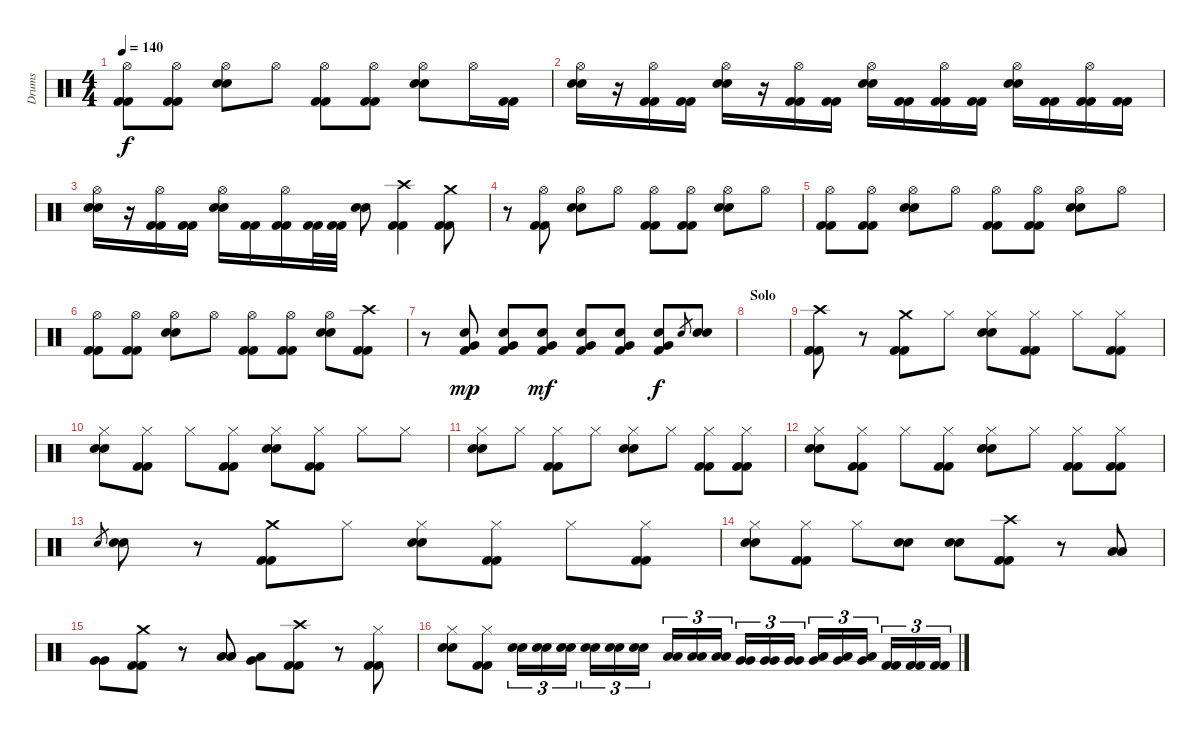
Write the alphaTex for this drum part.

\track ("Drums" "Drums") {instrument percussion}
\staff {score}
\articulation defaults
\ts (4 4)
\tempo 140
\clef neutral
\ks c
("Hi-Hat (open)" "Kick (hit) 2" "Kick (hit) 2").8{dy f} ("Hi-Hat (open)" "Kick (hit) 2" "Kick (hit) 2").8 ("Hi-Hat (open)" "Snare (hit) 2" "Snare (hit) 2").8 "Hi-Hat (open)".8 ("Hi-Hat (open)" "Kick (hit) 2" "Kick (hit) 2").8 ("Hi-Hat (open)" "Kick (hit) 2" "Kick (hit) 2").8 ("Hi-Hat (open)" "Snare (hit) 2" "Snare (hit) 2").8 "Hi-Hat (open)".16 ("Kick (hit) 2" "Kick (hit) 2").16 |
("Hi-Hat (open)" "Snare (hit) 2" "Snare (hit) 2").16 r.16 ("Hi-Hat (open)" "Kick (hit) 2" "Kick (hit) 2").16 ("Kick (hit) 2" "Kick (hit) 2").16 ("Hi-Hat (open)" "Snare (hit) 2" "Snare (hit) 2").16 r.16 ("Hi-Hat (open)" "Kick (hit) 2" "Kick (hit) 2").16 ("Kick (hit) 2" "Kick (hit) 2").16 ("Hi-Hat (open)" "Snare (hit) 2" "Snare (hit) 2").16 ("Kick (hit) 2" "Kick (hit) 2").16 ("Hi-Hat (open)" "Kick (hit) 2" "Kick (hit) 2").16 ("Kick (hit) 2" "Kick (hit) 2").16 ("Hi-Hat (open)" "Snare (hit) 2" "Snare (hit) 2").16 ("Kick (hit) 2" "Kick (hit) 2").16 ("Hi-Hat (open)" "Kick (hit) 2" "Kick (hit) 2").16 ("Kick (hit) 2" "Kick (hit) 2").16 |
("Hi-Hat (open)" "Snare (hit) 2" "Snare (hit) 2").16 r.16 ("Hi-Hat (open)" "Kick (hit) 2" "Kick (hit) 2").16 ("Kick (hit) 2" "Kick (hit) 2").16 ("Hi-Hat (open)" "Snare (hit) 2" "Snare (hit) 2").16 ("Kick (hit) 2" "Kick (hit) 2").16 ("Hi-Hat (open)" "Kick (hit) 2" "Kick (hit) 2").16 ("Kick (hit) 2" "Kick (hit) 2").32 ("Kick (hit) 2" "Kick (hit) 2").32 ("Snare (hit) 2" "Snare (hit) 2").8 ("Crash high (hit)" "Kick (hit) 2" "Kick (hit) 2").4 ("Crash medium (hit)" "Kick (hit) 2" "Kick (hit) 2").8 |
r.8 ("Hi-Hat (open)" "Kick (hit) 2" "Kick (hit) 2").8 ("Hi-Hat (open)" "Snare (hit) 2" "Snare (hit) 2").8 "Hi-Hat (open)".8 ("Hi-Hat (open)" "Kick (hit) 2" "Kick (hit) 2").8 ("Hi-Hat (open)" "Kick (hit) 2" "Kick (hit) 2").8 ("Hi-Hat (open)" "Snare (hit) 2" "Snare (hit) 2").8 "Hi-Hat (open)".8 |
("Hi-Hat (open)" "Kick (hit) 2" "Kick (hit) 2").8 ("Hi-Hat (open)" "Kick (hit) 2" "Kick (hit) 2").8 ("Hi-Hat (open)" "Snare (hit) 2" "Snare (hit) 2").8 "Hi-Hat (open)".8 ("Hi-Hat (open)" "Kick (hit) 2" "Kick (hit) 2").8 ("Hi-Hat (open)" "Kick (hit) 2" "Kick (hit) 2").8 ("Hi-Hat (open)" "Snare (hit) 2" "Snare (hit) 2").8 "Hi-Hat (open)".8 |
("Hi-Hat (open)" "Kick (hit) 2" "Kick (hit) 2").8 ("Hi-Hat (open)" "Kick (hit) 2" "Kick (hit) 2").8 ("Hi-Hat (open)" "Snare (hit) 2" "Snare (hit) 2").8 "Hi-Hat (open)".8 ("Hi-Hat (open)" "Kick (hit) 2" "Kick (hit) 2").8 ("Hi-Hat (open)" "Kick (hit) 2" "Kick (hit) 2").8 ("Hi-Hat (open)" "Snare (hit) 2" "Snare (hit) 2").8 ("Crash high (hit)" "Kick (hit) 2" "Kick (hit) 2").8 |
r.8 ("Very Low Tom (hit)" "Snare (hit) 2" "Kick (hit) 2").8{dy mp} ("Very Low Tom (hit)" "Snare (hit) 2" "Kick (hit) 2").8 ("Very Low Tom (hit)" "Snare (hit) 2" "Kick (hit) 2").8{dy mf} ("Very Low Tom (hit)" "Snare (hit) 2" "Kick (hit) 2").8 ("Very Low Tom (hit)" "Snare (hit) 2" "Kick (hit) 2").8 ("Very Low Tom (hit)" "Snare (hit) 2" "Kick (hit) 2").8{dy f} "Snare (hit) 2".8{gr} ("Snare (hit) 2" "Snare (hit) 2").8 |
\section ("" "Solo")
|
("Crash high (hit)" "Kick (hit) 2" "Kick (hit) 2").8 r.8 ("Crash medium (hit)" "Kick (hit) 2" "Kick (hit) 2").8 "Hi-Hat (closed)".8 ("Hi-Hat (closed)" "Snare (hit) 2" "Snare (hit) 2").8 ("Hi-Hat (closed)" "Kick (hit) 2" "Kick (hit) 2").8 "Hi-Hat (closed)".8 ("Hi-Hat (closed)" "Kick (hit) 2" "Kick (hit) 2").8 |
("Hi-Hat (closed)" "Snare (hit) 2" "Snare (hit) 2").8 ("Hi-Hat (closed)" "Kick (hit) 2" "Kick (hit) 2").8 "Hi-Hat (closed)".8 ("Hi-Hat (closed)" "Kick (hit) 2" "Kick (hit) 2").8 ("Hi-Hat (closed)" "Snare (hit) 2" "Snare (hit) 2").8 ("Hi-Hat (closed)" "Kick (hit) 2" "Kick (hit) 2").8 "Hi-Hat (closed)".8 "Hi-Hat (closed)".8 |
("Hi-Hat (closed)" "Snare (hit) 2" "Snare (hit) 2").8 "Hi-Hat (closed)".8 ("Hi-Hat (closed)" "Kick (hit) 2" "Kick (hit) 2").8 "Hi-Hat (closed)".8 ("Hi-Hat (closed)" "Snare (hit) 2" "Snare (hit) 2").8 "Hi-Hat (closed)".8 ("Hi-Hat (closed)" "Kick (hit) 2" "Kick (hit) 2").8 ("Hi-Hat (closed)" "Kick (hit) 2" "Kick (hit) 2").8 |
("Hi-Hat (closed)" "Snare (hit) 2" "Snare (hit) 2").8 ("Hi-Hat (closed)" "Kick (hit) 2" "Kick (hit) 2").8 "Hi-Hat (closed)".8 ("Hi-Hat (closed)" "Kick (hit) 2" "Kick (hit) 2").8 ("Hi-Hat (closed)" "Snare (hit) 2" "Snare (hit) 2").8 "Hi-Hat (closed)".8 ("Hi-Hat (closed)" "Kick (hit) 2" "Kick (hit) 2").8 ("Hi-Hat (closed)" "Kick (hit) 2" "Kick (hit) 2").8 |
"Snare (hit) 2".8{gr} ("Snare (hit) 2" "Snare (hit) 2").8 r.8 ("Crash medium (hit)" "Kick (hit) 2" "Kick (hit) 2").8 "Hi-Hat (closed)".8 ("Hi-Hat (closed)" "Snare (hit) 2" "Snare (hit) 2").8 ("Hi-Hat (closed)" "Kick (hit) 2" "Kick (hit) 2").8 "Hi-Hat (closed)".8 ("Hi-Hat (closed)" "Kick (hit) 2" "Kick (hit) 2").8 |
("Hi-Hat (closed)" "Snare (hit) 2" "Snare (hit) 2").8 ("Hi-Hat (closed)" "Kick (hit) 2" "Kick (hit) 2").8 "Hi-Hat (closed)".8 ("Snare (hit) 2" "Snare (hit) 2").8 ("Snare (hit) 2" "Snare (hit) 2").8 ("Crash high (hit)" "Kick (hit) 2" "Kick (hit) 2").8 r.8 ("Low Tom (hit)" "Low Tom (hit)").8 |
("Very Low Tom (hit)" "Very Low Tom (hit)").8 ("Crash medium (hit)" "Kick (hit) 2" "Kick (hit) 2").8 r.8 ("Low Tom (hit)" "Low Tom (hit)").8 ("Very Low Tom (hit)" "Low Tom (hit)").8 ("Crash high (hit)" "Kick (hit) 2" "Kick (hit) 2").8 r.8 ("Hi-Hat (closed)" "Kick (hit) 2" "Kick (hit) 2").8 |
("Hi-Hat (closed)" "Snare (hit) 2" "Snare (hit) 2").8 ("Hi-Hat (closed)" "Kick (hit) 2" "Kick (hit) 2").8 ("Snare (hit) 2" "Snare (hit) 2").16{tu (3 2)} ("Snare (hit) 2" "Snare (hit) 2").16{tu (3 2)} ("Snare (hit) 2" "Snare (hit) 2").16{tu (3 2)} ("Snare (hit) 2" "Snare (hit) 2").16{tu (3 2)} ("Snare (hit) 2" "Snare (hit) 2").16{tu (3 2)} ("Snare (hit) 2" "Snare (hit) 2").16{tu (3 2)} ("Low Tom (hit)" "Low Tom (hit)").16{tu (3 2)} ("Low Tom (hit)" "Low Tom (hit)").16{tu (3 2)} ("Low Tom (hit)" "Low Tom (hit)").16{tu (3 2)} ("Very Low Tom (hit)" "Very Low Tom (hit)").16{tu (3 2)} ("Very Low Tom (hit)" "Very Low Tom (hit)").16{tu (3 2)} ("Very Low Tom (hit)" "Very Low Tom (hit)").16{tu (3 2)} ("Very Low Tom (hit)" "Low Floor Tom (hit)").16{tu (3 2)} ("Very Low Tom (hit)" "Low Floor Tom (hit)").16{tu (3 2)} ("Very Low Tom (hit)" "Low Floor Tom (hit)").16{tu (3 2)} ("Kick (hit) 2" "Kick (hit) 2").16{tu (3 2)} ("Kick (hit) 2" "Kick (hit) 2").16{tu (3 2)} ("Kick (hit) 2" "Kick (hit) 2").16{tu (3 2)}
